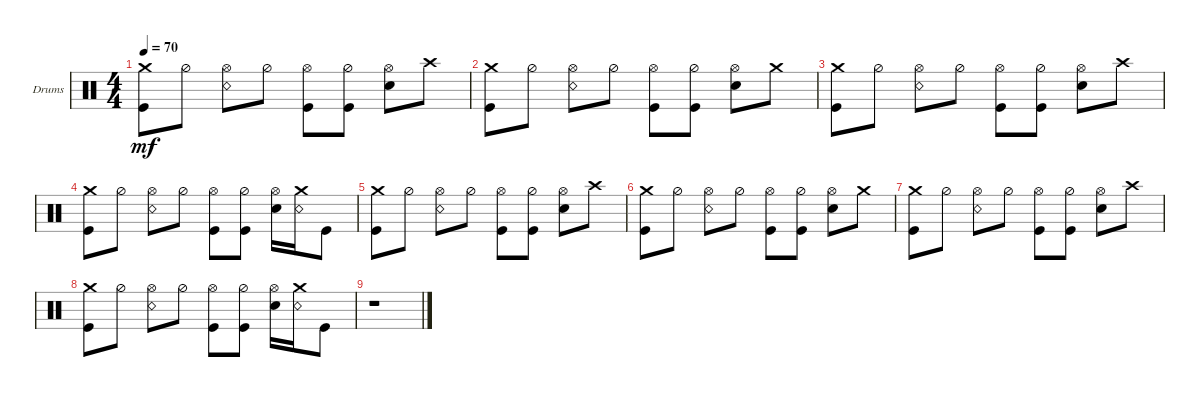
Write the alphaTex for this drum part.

\defaultSystemsLayout 4
\bracketExtendMode groupsimilarinstruments
\firstSystemTrackNameOrientation horizontal
\otherSystemsTrackNameOrientation horizontal
\track ("Drum" "Drums") {multiBarRest instrument percussion}
\staff {score}
\articulation defaults
\ts (4 4)
\tempo 70
\clef neutral
\ks c
("Crash medium (hit)" "Kick (hit)").8{dy mf} "Hi-Hat (half)".8 ("Hi-Hat (open)" "Snare (rim shot)").8 "Hi-Hat (half)".8 ("Hi-Hat (open)" "Kick (hit)").8 ("Hi-Hat (half)" "Kick (hit)").8 ("Hi-Hat (open)" "Snare (hit) 2").8 "Crash high (hit)".8 |
("Kick (hit)" "Crash medium (hit)").8 "Hi-Hat (half)".8 ("Hi-Hat (open)" "Snare (rim shot)").8 "Hi-Hat (half)".8 ("Hi-Hat (open)" "Kick (hit)").8 ("Hi-Hat (half)" "Kick (hit)").8 ("Hi-Hat (open)" "Snare (hit) 2").8 "Crash medium (hit)".8 |
("Crash medium (hit)" "Kick (hit)").8 "Hi-Hat (half)".8 ("Hi-Hat (open)" "Snare (rim shot)").8 "Hi-Hat (half)".8 ("Hi-Hat (open)" "Kick (hit)").8 ("Hi-Hat (half)" "Kick (hit)").8 ("Hi-Hat (open)" "Snare (hit) 2").8 "Crash high (hit)".8 |
("Crash medium (hit)" "Kick (hit)").8 "Hi-Hat (half)".8 ("Hi-Hat (open)" "Snare (rim shot)").8 "Hi-Hat (half)".8 ("Hi-Hat (open)" "Kick (hit)").8 ("Hi-Hat (half)" "Kick (hit)").8 ("Hi-Hat (open)" "Snare (hit) 2").16 ("Crash medium (hit)" "Snare (rim shot)").16 "Kick (hit)".8 |
("Crash medium (hit)" "Kick (hit)").8 "Hi-Hat (half)".8 ("Hi-Hat (open)" "Snare (rim shot)").8 "Hi-Hat (half)".8 ("Hi-Hat (open)" "Kick (hit)").8 ("Hi-Hat (half)" "Kick (hit)").8 ("Hi-Hat (open)" "Snare (hit) 2").8 "Crash high (hit)".8 |
("Kick (hit)" "Crash medium (hit)").8 "Hi-Hat (half)".8 ("Hi-Hat (open)" "Snare (rim shot)").8 "Hi-Hat (half)".8 ("Hi-Hat (open)" "Kick (hit)").8 ("Hi-Hat (half)" "Kick (hit)").8 ("Hi-Hat (open)" "Snare (hit) 2").8 "Crash medium (hit)".8 |
("Crash medium (hit)" "Kick (hit)").8 "Hi-Hat (half)".8 ("Hi-Hat (open)" "Snare (rim shot)").8 "Hi-Hat (half)".8 ("Hi-Hat (open)" "Kick (hit)").8 ("Hi-Hat (half)" "Kick (hit)").8 ("Hi-Hat (open)" "Snare (hit) 2").8 "Crash high (hit)".8 |
("Crash medium (hit)" "Kick (hit)").8 "Hi-Hat (half)".8 ("Hi-Hat (open)" "Snare (rim shot)").8 "Hi-Hat (half)".8 ("Hi-Hat (open)" "Kick (hit)").8 ("Hi-Hat (half)" "Kick (hit)").8 ("Hi-Hat (open)" "Snare (hit) 2").16 ("Crash medium (hit)" "Snare (rim shot)").16 "Kick (hit)".8 |
r.1
